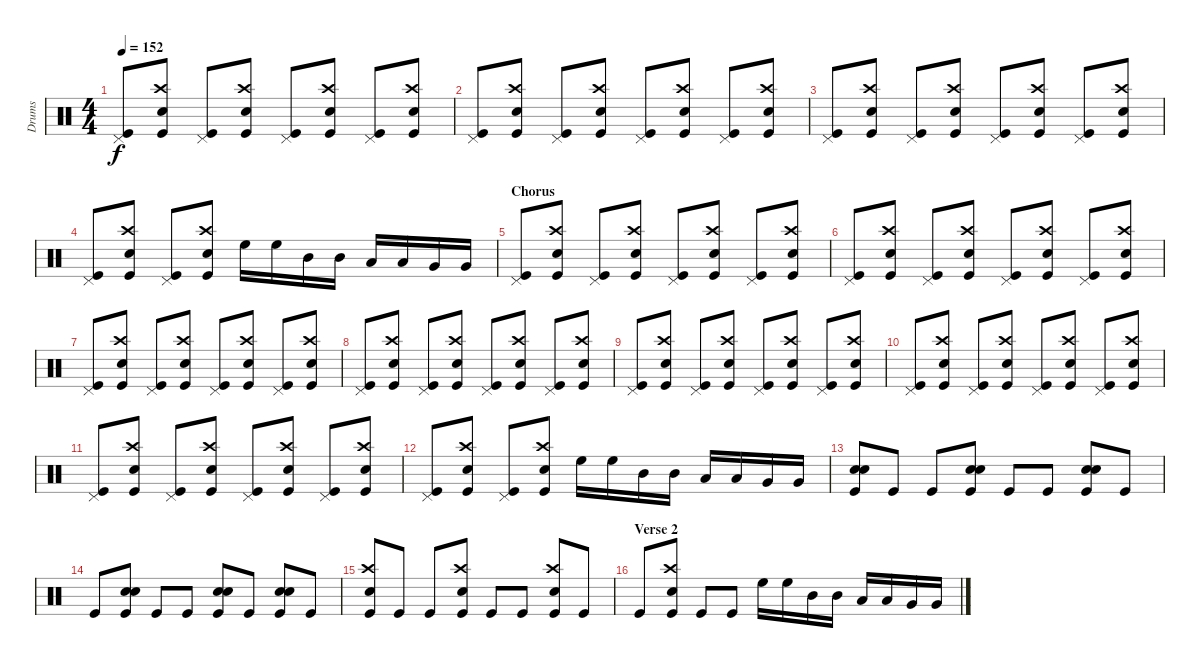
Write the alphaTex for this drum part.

\track ("Drums" "Drums") {instrument percussion}
\staff {score}
\articulation defaults
\ts (4 4)
\tempo 152
\clef neutral
\ks c
("Pedal Hi-Hat (hit)" "Kick (hit)").8{dy f} ("Crash high (hit)" "Electric Snare (hit)" "Kick (hit)").8 ("Pedal Hi-Hat (hit)" "Kick (hit)").8 ("Crash high (hit)" "Electric Snare (hit)" "Kick (hit)").8 ("Pedal Hi-Hat (hit)" "Kick (hit)").8 ("Crash high (hit)" "Electric Snare (hit)" "Kick (hit)").8 ("Pedal Hi-Hat (hit)" "Kick (hit)").8 ("Crash high (hit)" "Electric Snare (hit)" "Kick (hit)").8 |
("Pedal Hi-Hat (hit)" "Kick (hit)").8 ("Crash high (hit)" "Electric Snare (hit)" "Kick (hit)").8 ("Pedal Hi-Hat (hit)" "Kick (hit)").8 ("Crash high (hit)" "Electric Snare (hit)" "Kick (hit)").8 ("Pedal Hi-Hat (hit)" "Kick (hit)").8 ("Crash high (hit)" "Electric Snare (hit)" "Kick (hit)").8 ("Pedal Hi-Hat (hit)" "Kick (hit)").8 ("Crash high (hit)" "Electric Snare (hit)" "Kick (hit)").8 |
("Pedal Hi-Hat (hit)" "Kick (hit)").8 ("Crash high (hit)" "Electric Snare (hit)" "Kick (hit)").8 ("Pedal Hi-Hat (hit)" "Kick (hit)").8 ("Crash high (hit)" "Electric Snare (hit)" "Kick (hit)").8 ("Pedal Hi-Hat (hit)" "Kick (hit)").8 ("Crash high (hit)" "Electric Snare (hit)" "Kick (hit)").8 ("Pedal Hi-Hat (hit)" "Kick (hit)").8 ("Crash high (hit)" "Electric Snare (hit)" "Kick (hit)").8 |
("Pedal Hi-Hat (hit)" "Kick (hit)").8 ("Crash high (hit)" "Electric Snare (hit)" "Kick (hit)").8 ("Pedal Hi-Hat (hit)" "Kick (hit)").8 ("Crash high (hit)" "Electric Snare (hit)" "Kick (hit)").8 "High Floor Tom (hit)".16 "High Floor Tom (hit)".16 "Mid Tom (hit)".16 "Mid Tom (hit)".16 "Low Tom (hit)".16 "Low Tom (hit)".16 "Very Low Tom (hit)".16 "Very Low Tom (hit)".16 |
\section ("" "Chorus")
("Pedal Hi-Hat (hit)" "Kick (hit)").8 ("Crash high (hit)" "Electric Snare (hit)" "Kick (hit)").8 ("Pedal Hi-Hat (hit)" "Kick (hit)").8 ("Crash high (hit)" "Electric Snare (hit)" "Kick (hit)").8 ("Pedal Hi-Hat (hit)" "Kick (hit)").8 ("Crash high (hit)" "Electric Snare (hit)" "Kick (hit)").8 ("Pedal Hi-Hat (hit)" "Kick (hit)").8 ("Crash high (hit)" "Electric Snare (hit)" "Kick (hit)").8 |
("Pedal Hi-Hat (hit)" "Kick (hit)").8 ("Crash high (hit)" "Electric Snare (hit)" "Kick (hit)").8 ("Pedal Hi-Hat (hit)" "Kick (hit)").8 ("Crash high (hit)" "Electric Snare (hit)" "Kick (hit)").8 ("Pedal Hi-Hat (hit)" "Kick (hit)").8 ("Crash high (hit)" "Electric Snare (hit)" "Kick (hit)").8 ("Pedal Hi-Hat (hit)" "Kick (hit)").8 ("Crash high (hit)" "Electric Snare (hit)" "Kick (hit)").8 |
("Pedal Hi-Hat (hit)" "Kick (hit)").8 ("Crash high (hit)" "Electric Snare (hit)" "Kick (hit)").8 ("Pedal Hi-Hat (hit)" "Kick (hit)").8 ("Crash high (hit)" "Electric Snare (hit)" "Kick (hit)").8 ("Pedal Hi-Hat (hit)" "Kick (hit)").8 ("Crash high (hit)" "Electric Snare (hit)" "Kick (hit)").8 ("Pedal Hi-Hat (hit)" "Kick (hit)").8 ("Crash high (hit)" "Electric Snare (hit)" "Kick (hit)").8 |
("Pedal Hi-Hat (hit)" "Kick (hit)").8 ("Crash high (hit)" "Electric Snare (hit)" "Kick (hit)").8 ("Pedal Hi-Hat (hit)" "Kick (hit)").8 ("Crash high (hit)" "Electric Snare (hit)" "Kick (hit)").8 ("Pedal Hi-Hat (hit)" "Kick (hit)").8 ("Crash high (hit)" "Electric Snare (hit)" "Kick (hit)").8 ("Pedal Hi-Hat (hit)" "Kick (hit)").8 ("Crash high (hit)" "Electric Snare (hit)" "Kick (hit)").8 |
("Pedal Hi-Hat (hit)" "Kick (hit)").8 ("Crash high (hit)" "Electric Snare (hit)" "Kick (hit)").8 ("Pedal Hi-Hat (hit)" "Kick (hit)").8 ("Crash high (hit)" "Electric Snare (hit)" "Kick (hit)").8 ("Pedal Hi-Hat (hit)" "Kick (hit)").8 ("Crash high (hit)" "Electric Snare (hit)" "Kick (hit)").8 ("Pedal Hi-Hat (hit)" "Kick (hit)").8 ("Crash high (hit)" "Electric Snare (hit)" "Kick (hit)").8 |
("Pedal Hi-Hat (hit)" "Kick (hit)").8 ("Crash high (hit)" "Electric Snare (hit)" "Kick (hit)").8 ("Pedal Hi-Hat (hit)" "Kick (hit)").8 ("Crash high (hit)" "Electric Snare (hit)" "Kick (hit)").8 ("Pedal Hi-Hat (hit)" "Kick (hit)").8 ("Crash high (hit)" "Electric Snare (hit)" "Kick (hit)").8 ("Pedal Hi-Hat (hit)" "Kick (hit)").8 ("Crash high (hit)" "Electric Snare (hit)" "Kick (hit)").8 |
("Pedal Hi-Hat (hit)" "Kick (hit)").8 ("Crash high (hit)" "Electric Snare (hit)" "Kick (hit)").8 ("Pedal Hi-Hat (hit)" "Kick (hit)").8 ("Crash high (hit)" "Electric Snare (hit)" "Kick (hit)").8 ("Pedal Hi-Hat (hit)" "Kick (hit)").8 ("Crash high (hit)" "Electric Snare (hit)" "Kick (hit)").8 ("Pedal Hi-Hat (hit)" "Kick (hit)").8 ("Crash high (hit)" "Electric Snare (hit)" "Kick (hit)").8 |
("Pedal Hi-Hat (hit)" "Kick (hit)").8 ("Crash high (hit)" "Electric Snare (hit)" "Kick (hit)").8 ("Pedal Hi-Hat (hit)" "Kick (hit)").8 ("Crash high (hit)" "Electric Snare (hit)" "Kick (hit)").8 "High Floor Tom (hit)".16 "High Floor Tom (hit)".16 "Mid Tom (hit)".16 "Mid Tom (hit)".16 "Low Tom (hit)".16 "Low Tom (hit)".16 "Very Low Tom (hit)".16 "Very Low Tom (hit)".16 |
("Electric Snare (hit)" "Electric Snare (hit)" "Kick (hit)").8 "Kick (hit)".8 "Kick (hit)".8 ("Electric Snare (hit)" "Electric Snare (hit)" "Kick (hit)").8 "Kick (hit)".8 "Kick (hit)".8 ("Electric Snare (hit)" "Electric Snare (hit)" "Kick (hit)").8 "Kick (hit)".8 |
"Kick (hit)".8 ("Electric Snare (hit)" "Electric Snare (hit)" "Kick (hit)").8 "Kick (hit)".8 "Kick (hit)".8 ("Electric Snare (hit)" "Electric Snare (hit)" "Kick (hit)").8 "Kick (hit)".8 ("Electric Snare (hit)" "Electric Snare (hit)" "Kick (hit)").8 "Kick (hit)".8 |
("Crash high (hit)" "Electric Snare (hit)" "Kick (hit)").8 "Kick (hit)".8 "Kick (hit)".8 ("Crash high (hit)" "Electric Snare (hit)" "Kick (hit)").8 "Kick (hit)".8 "Kick (hit)".8 ("Crash high (hit)" "Electric Snare (hit)" "Kick (hit)").8 "Kick (hit)".8 |
\section ("" "Verse 2")
"Kick (hit)".8 ("Crash high (hit)" "Electric Snare (hit)" "Kick (hit)").8 "Kick (hit)".8 "Kick (hit)".8 "High Floor Tom (hit)".16 "High Floor Tom (hit)".16 "Mid Tom (hit)".16 "Mid Tom (hit)".16 "Low Tom (hit)".16 "Low Tom (hit)".16 "Very Low Tom (hit)".16 "Very Low Tom (hit)".16
